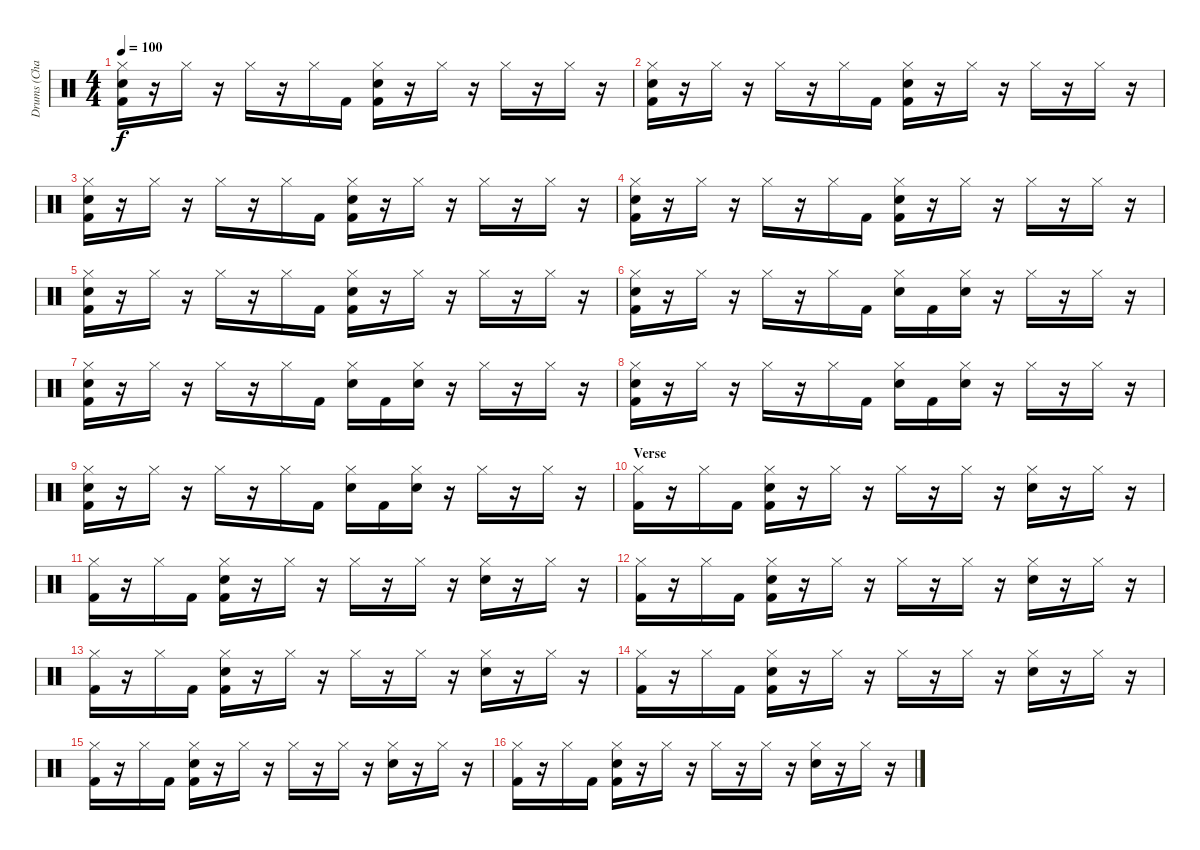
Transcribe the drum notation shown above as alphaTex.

\track ("Drums (Chad Smith)" "Drums (Cha") {instrument percussion}
\staff {score}
\articulation defaults
\ts (4 4)
\tempo 100
\clef neutral
\ks c
("Hi-Hat (closed)" "Electric Snare (hit)" "Kick (hit) 2").16{dy f} r.16 "Hi-Hat (closed)".16 r.16 "Hi-Hat (closed)".16 r.16 "Hi-Hat (closed)".16 "Kick (hit) 2".16 ("Hi-Hat (closed)" "Electric Snare (hit)" "Kick (hit) 2").16 r.16 "Hi-Hat (closed)".16 r.16 "Hi-Hat (closed)".16 r.16 "Hi-Hat (closed)".16 r.16 |
("Hi-Hat (closed)" "Electric Snare (hit)" "Kick (hit) 2").16 r.16 "Hi-Hat (closed)".16 r.16 "Hi-Hat (closed)".16 r.16 "Hi-Hat (closed)".16 "Kick (hit) 2".16 ("Hi-Hat (closed)" "Electric Snare (hit)" "Kick (hit) 2").16 r.16 "Hi-Hat (closed)".16 r.16 "Hi-Hat (closed)".16 r.16 "Hi-Hat (closed)".16 r.16 |
("Hi-Hat (closed)" "Electric Snare (hit)" "Kick (hit) 2").16 r.16 "Hi-Hat (closed)".16 r.16 "Hi-Hat (closed)".16 r.16 "Hi-Hat (closed)".16 "Kick (hit) 2".16 ("Hi-Hat (closed)" "Electric Snare (hit)" "Kick (hit) 2").16 r.16 "Hi-Hat (closed)".16 r.16 "Hi-Hat (closed)".16 r.16 "Hi-Hat (closed)".16 r.16 |
("Hi-Hat (closed)" "Electric Snare (hit)" "Kick (hit) 2").16 r.16 "Hi-Hat (closed)".16 r.16 "Hi-Hat (closed)".16 r.16 "Hi-Hat (closed)".16 "Kick (hit) 2".16 ("Hi-Hat (closed)" "Electric Snare (hit)" "Kick (hit) 2").16 r.16 "Hi-Hat (closed)".16 r.16 "Hi-Hat (closed)".16 r.16 "Hi-Hat (closed)".16 r.16 |
("Hi-Hat (closed)" "Electric Snare (hit)" "Kick (hit) 2").16 r.16 "Hi-Hat (closed)".16 r.16 "Hi-Hat (closed)".16 r.16 "Hi-Hat (closed)".16 "Kick (hit) 2".16 ("Hi-Hat (closed)" "Electric Snare (hit)" "Kick (hit) 2").16 r.16 "Hi-Hat (closed)".16 r.16 "Hi-Hat (closed)".16 r.16 "Hi-Hat (closed)".16 r.16 |
("Hi-Hat (closed)" "Electric Snare (hit)" "Kick (hit) 2").16 r.16 "Hi-Hat (closed)".16 r.16 "Hi-Hat (closed)".16 r.16 "Hi-Hat (closed)".16 "Kick (hit) 2".16 ("Hi-Hat (closed)" "Electric Snare (hit)").16 "Kick (hit) 2".16 ("Hi-Hat (closed)" "Electric Snare (hit)").16 r.16 "Hi-Hat (closed)".16 r.16 "Hi-Hat (closed)".16 r.16 |
("Hi-Hat (closed)" "Electric Snare (hit)" "Kick (hit) 2").16 r.16 "Hi-Hat (closed)".16 r.16 "Hi-Hat (closed)".16 r.16 "Hi-Hat (closed)".16 "Kick (hit) 2".16 ("Hi-Hat (closed)" "Electric Snare (hit)").16 "Kick (hit) 2".16 ("Hi-Hat (closed)" "Electric Snare (hit)").16 r.16 "Hi-Hat (closed)".16 r.16 "Hi-Hat (closed)".16 r.16 |
("Hi-Hat (closed)" "Electric Snare (hit)" "Kick (hit) 2").16 r.16 "Hi-Hat (closed)".16 r.16 "Hi-Hat (closed)".16 r.16 "Hi-Hat (closed)".16 "Kick (hit) 2".16 ("Hi-Hat (closed)" "Electric Snare (hit)").16 "Kick (hit) 2".16 ("Hi-Hat (closed)" "Electric Snare (hit)").16 r.16 "Hi-Hat (closed)".16 r.16 "Hi-Hat (closed)".16 r.16 |
("Hi-Hat (closed)" "Electric Snare (hit)" "Kick (hit) 2").16 r.16 "Hi-Hat (closed)".16 r.16 "Hi-Hat (closed)".16 r.16 "Hi-Hat (closed)".16 "Kick (hit) 2".16 ("Hi-Hat (closed)" "Electric Snare (hit)").16 "Kick (hit) 2".16 ("Hi-Hat (closed)" "Electric Snare (hit)").16 r.16 "Hi-Hat (closed)".16 r.16 "Hi-Hat (closed)".16 r.16 |
\section ("" "Verse")
("Hi-Hat (closed)" "Kick (hit) 2").16 r.16 "Hi-Hat (closed)".16 "Kick (hit) 2".16 ("Hi-Hat (closed)" "Electric Snare (hit)" "Kick (hit) 2").16 r.16 "Hi-Hat (closed)".16 r.16 "Hi-Hat (closed)".16 r.16 "Hi-Hat (closed)".16 r.16 ("Hi-Hat (closed)" "Electric Snare (hit)").16 r.16 "Hi-Hat (closed)".16 r.16 |
("Hi-Hat (closed)" "Kick (hit) 2").16 r.16 "Hi-Hat (closed)".16 "Kick (hit) 2".16 ("Hi-Hat (closed)" "Electric Snare (hit)" "Kick (hit) 2").16 r.16 "Hi-Hat (closed)".16 r.16 "Hi-Hat (closed)".16 r.16 "Hi-Hat (closed)".16 r.16 ("Hi-Hat (closed)" "Electric Snare (hit)").16 r.16 "Hi-Hat (closed)".16 r.16 |
("Hi-Hat (closed)" "Kick (hit) 2").16 r.16 "Hi-Hat (closed)".16 "Kick (hit) 2".16 ("Hi-Hat (closed)" "Electric Snare (hit)" "Kick (hit) 2").16 r.16 "Hi-Hat (closed)".16 r.16 "Hi-Hat (closed)".16 r.16 "Hi-Hat (closed)".16 r.16 ("Hi-Hat (closed)" "Electric Snare (hit)").16 r.16 "Hi-Hat (closed)".16 r.16 |
("Hi-Hat (closed)" "Kick (hit) 2").16 r.16 "Hi-Hat (closed)".16 "Kick (hit) 2".16 ("Hi-Hat (closed)" "Electric Snare (hit)" "Kick (hit) 2").16 r.16 "Hi-Hat (closed)".16 r.16 "Hi-Hat (closed)".16 r.16 "Hi-Hat (closed)".16 r.16 ("Hi-Hat (closed)" "Electric Snare (hit)").16 r.16 "Hi-Hat (closed)".16 r.16 |
("Hi-Hat (closed)" "Kick (hit) 2").16 r.16 "Hi-Hat (closed)".16 "Kick (hit) 2".16 ("Hi-Hat (closed)" "Electric Snare (hit)" "Kick (hit) 2").16 r.16 "Hi-Hat (closed)".16 r.16 "Hi-Hat (closed)".16 r.16 "Hi-Hat (closed)".16 r.16 ("Hi-Hat (closed)" "Electric Snare (hit)").16 r.16 "Hi-Hat (closed)".16 r.16 |
("Hi-Hat (closed)" "Kick (hit) 2").16 r.16 "Hi-Hat (closed)".16 "Kick (hit) 2".16 ("Hi-Hat (closed)" "Electric Snare (hit)" "Kick (hit) 2").16 r.16 "Hi-Hat (closed)".16 r.16 "Hi-Hat (closed)".16 r.16 "Hi-Hat (closed)".16 r.16 ("Hi-Hat (closed)" "Electric Snare (hit)").16 r.16 "Hi-Hat (closed)".16 r.16 |
("Hi-Hat (closed)" "Kick (hit) 2").16 r.16 "Hi-Hat (closed)".16 "Kick (hit) 2".16 ("Hi-Hat (closed)" "Electric Snare (hit)" "Kick (hit) 2").16 r.16 "Hi-Hat (closed)".16 r.16 "Hi-Hat (closed)".16 r.16 "Hi-Hat (closed)".16 r.16 ("Hi-Hat (closed)" "Electric Snare (hit)").16 r.16 "Hi-Hat (closed)".16 r.16
